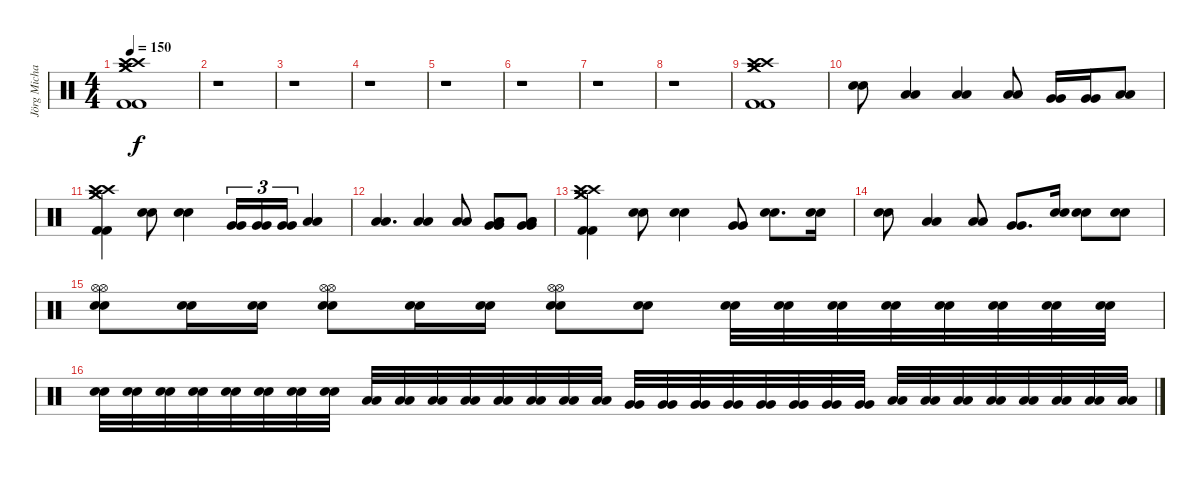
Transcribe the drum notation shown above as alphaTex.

\track ("Jörg Michael" "Jörg Micha") {instrument percussion}
\staff {score}
\articulation defaults
\ts (4 4)
\tempo 150
\clef neutral
\ks c
("Crash high (hit)" "Kick (hit) 2" "Crash medium (hit)" "Crash high (hit)" "Kick (hit) 2" "Crash medium (hit)").1{dy f} |
r.1 |
r.1 |
r.1 |
r.1 |
r.1 |
r.1 |
r.1 |
("Kick (hit) 2" "Crash high (hit)" "Crash medium (hit)" "Kick (hit) 2" "Crash high (hit)" "Crash medium (hit)").1 |
("Snare (hit) 2" "Snare (hit) 2").8 ("Low Tom (hit)" "Low Tom (hit)").4 ("Low Tom (hit)" "Low Tom (hit)").4 ("Low Tom (hit)" "Low Tom (hit)").8 ("Very Low Tom (hit)" "Very Low Tom (hit)").16 ("Very Low Tom (hit)" "Very Low Tom (hit)").16 ("Low Floor Tom (hit)" "Low Floor Tom (hit)").8 |
("Kick (hit) 2" "Crash high (hit)" "Crash medium (hit)" "Kick (hit) 2" "Crash high (hit)" "Crash medium (hit)").4 ("Snare (hit) 2" "Snare (hit) 2").8 ("Snare (hit) 2" "Snare (hit) 2").4 ("Very Low Tom (hit)" "Very Low Tom (hit)").16{tu (3 2)} ("Very Low Tom (hit)" "Very Low Tom (hit)").16{tu (3 2)} ("Very Low Tom (hit)" "Very Low Tom (hit)").16{tu (3 2)} ("Low Floor Tom (hit)" "Low Floor Tom (hit)").4 |
("Low Tom (hit)" "Low Tom (hit)").4{d} ("Low Tom (hit)" "Low Tom (hit)").4 ("Low Tom (hit)" "Low Tom (hit)").8 ("Very Low Tom (hit)" "Low Floor Tom (hit)" "Very Low Tom (hit)" "Low Floor Tom (hit)").8 ("Low Floor Tom (hit)" "Very Low Tom (hit)" "Low Floor Tom (hit)" "Very Low Tom (hit)").8 |
("Crash high (hit)" "Kick (hit) 2" "Crash medium (hit)" "Crash high (hit)" "Kick (hit) 2" "Crash medium (hit)").4 ("Snare (hit) 2" "Snare (hit) 2").8 ("Snare (hit) 2" "Snare (hit) 2").4 ("Very Low Tom (hit)" "Very Low Tom (hit)").8 ("Snare (hit) 2" "Snare (hit) 2").8{d} ("Snare (hit) 2" "Snare (hit) 2").16 |
("Snare (hit) 2" "Snare (hit) 2").8 ("Low Tom (hit)" "Low Tom (hit)").4 ("Low Tom (hit)" "Low Tom (hit)").8 ("Very Low Tom (hit)" "Very Low Tom (hit)").8{d} ("Snare (hit) 2" "Snare (hit) 2").16 ("Snare (hit) 2" "Snare (hit) 2").8 ("Snare (hit) 2" "Snare (hit) 2").8 |
("Snare (hit) 2" "Hi-Hat (open)" "Snare (hit) 2" "Hi-Hat (open)").8 ("Snare (hit) 2" "Snare (hit) 2").16 ("Snare (hit) 2" "Snare (hit) 2").16 ("Snare (hit) 2" "Hi-Hat (open)" "Snare (hit) 2" "Hi-Hat (open)").8 ("Snare (hit) 2" "Snare (hit) 2").16 ("Snare (hit) 2" "Snare (hit) 2").16 ("Snare (hit) 2" "Hi-Hat (open)" "Snare (hit) 2" "Hi-Hat (open)").8 ("Snare (hit) 2" "Snare (hit) 2").8 ("Snare (hit) 2" "Snare (hit) 2").32 ("Snare (hit) 2" "Snare (hit) 2").32 ("Snare (hit) 2" "Snare (hit) 2").32 ("Snare (hit) 2" "Snare (hit) 2").32 ("Snare (hit) 2" "Snare (hit) 2").32 ("Snare (hit) 2" "Snare (hit) 2").32 ("Snare (hit) 2" "Snare (hit) 2").32 ("Snare (hit) 2" "Snare (hit) 2").32 |
("Snare (hit) 2" "Snare (hit) 2").32 ("Snare (hit) 2" "Snare (hit) 2").32 ("Snare (hit) 2" "Snare (hit) 2").32 ("Snare (hit) 2" "Snare (hit) 2").32 ("Snare (hit) 2" "Snare (hit) 2").32 ("Snare (hit) 2" "Snare (hit) 2").32 ("Snare (hit) 2" "Snare (hit) 2").32 ("Snare (hit) 2" "Snare (hit) 2").32 ("Low Tom (hit)" "Low Tom (hit)").32 ("Low Tom (hit)" "Low Tom (hit)").32 ("Low Tom (hit)" "Low Tom (hit)").32 ("Low Tom (hit)" "Low Tom (hit)").32 ("Low Tom (hit)" "Low Tom (hit)").32 ("Low Tom (hit)" "Low Tom (hit)").32 ("Low Tom (hit)" "Low Tom (hit)").32 ("Low Tom (hit)" "Low Tom (hit)").32 ("Very Low Tom (hit)" "Very Low Tom (hit)").32 ("Very Low Tom (hit)" "Very Low Tom (hit)").32 ("Very Low Tom (hit)" "Very Low Tom (hit)").32 ("Very Low Tom (hit)" "Very Low Tom (hit)").32 ("Very Low Tom (hit)" "Very Low Tom (hit)").32 ("Very Low Tom (hit)" "Very Low Tom (hit)").32 ("Very Low Tom (hit)" "Very Low Tom (hit)").32 ("Very Low Tom (hit)" "Very Low Tom (hit)").32 ("Low Floor Tom (hit)" "Low Floor Tom (hit)").32 ("Low Floor Tom (hit)" "Low Floor Tom (hit)").32 ("Low Floor Tom (hit)" "Low Floor Tom (hit)").32 ("Low Floor Tom (hit)" "Low Floor Tom (hit)").32 ("Low Floor Tom (hit)" "Low Floor Tom (hit)").32 ("Low Floor Tom (hit)" "Low Floor Tom (hit)").32 ("Low Floor Tom (hit)" "Low Floor Tom (hit)").32 ("Low Floor Tom (hit)" "Low Floor Tom (hit)").32
